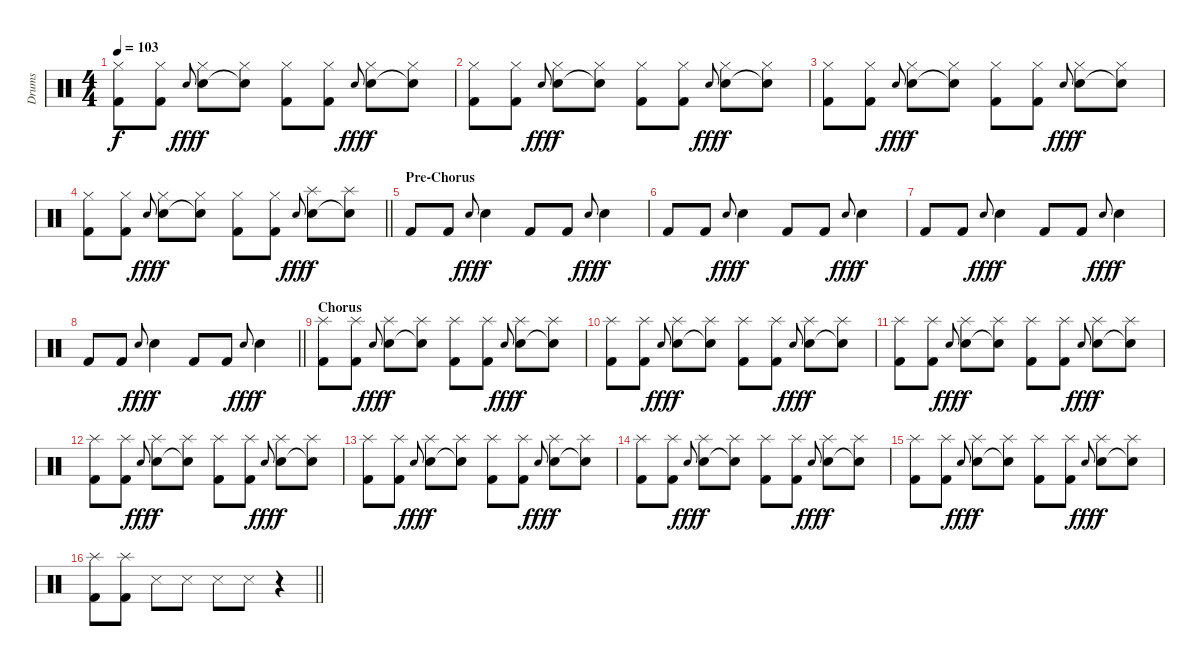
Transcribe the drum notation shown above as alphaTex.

\track ("Drums" "Drums") {instrument percussion}
\staff {score}
\articulation defaults
\ts (4 4)
\tempo 103
\clef neutral
\ks c
("Kick (hit) 2" "Hi-Hat (closed)").8{dy f} ("Kick (hit) 2" "Hi-Hat (closed)").8 "Snare (hit) 2"{h}.8{gr onbeat dy fff} ("Snare (hit) 2" "Hi-Hat (closed)").8{dy f} ("Snare (hit) 2"{t} "Hi-Hat (closed)").8 ("Kick (hit) 2" "Hi-Hat (closed)").8 ("Kick (hit) 2" "Hi-Hat (closed)").8 "Snare (hit) 2"{h}.8{gr onbeat dy fff} ("Snare (hit) 2" "Hi-Hat (closed)").8{dy f} ("Snare (hit) 2"{t} "Hi-Hat (closed)").8 |
("Kick (hit) 2" "Hi-Hat (closed)").8 ("Kick (hit) 2" "Hi-Hat (closed)").8 "Snare (hit) 2"{h}.8{gr onbeat dy fff} ("Snare (hit) 2" "Hi-Hat (closed)").8{dy f} ("Snare (hit) 2"{t} "Hi-Hat (closed)").8 ("Kick (hit) 2" "Hi-Hat (closed)").8 ("Kick (hit) 2" "Hi-Hat (closed)").8 "Snare (hit) 2"{h}.8{gr onbeat dy fff} ("Snare (hit) 2" "Hi-Hat (closed)").8{dy f} ("Snare (hit) 2"{t} "Hi-Hat (closed)").8 |
("Kick (hit) 2" "Hi-Hat (closed)").8 ("Kick (hit) 2" "Hi-Hat (closed)").8 "Snare (hit) 2"{h}.8{gr onbeat dy fff} ("Snare (hit) 2" "Hi-Hat (closed)").8{dy f} ("Snare (hit) 2"{t} "Hi-Hat (closed)").8 ("Kick (hit) 2" "Hi-Hat (closed)").8 ("Kick (hit) 2" "Hi-Hat (closed)").8 "Snare (hit) 2"{h}.8{gr onbeat dy fff} ("Snare (hit) 2" "Hi-Hat (closed)").8{dy f} ("Snare (hit) 2"{t} "Hi-Hat (closed)").8 |
\barLineRight lightlight
("Kick (hit) 2" "Hi-Hat (closed)").8 ("Kick (hit) 2" "Hi-Hat (closed)").8 "Snare (hit) 2"{h}.8{gr onbeat dy fff} ("Snare (hit) 2" "Hi-Hat (closed)").8{dy f} ("Snare (hit) 2"{t} "Hi-Hat (closed)").8 ("Kick (hit) 2" "Hi-Hat (closed)").8 ("Kick (hit) 2" "Hi-Hat (closed)").8 "Snare (hit) 2"{h}.8{gr onbeat dy fff} ("Snare (hit) 2" "Splash (hit)").8{dy f} ("Snare (hit) 2"{t} "Splash (hit)").8 |
\section ("" "Pre-Chorus")
"Kick (hit) 2".8 "Kick (hit) 2".8 "Snare (hit) 2"{h}.8{gr onbeat dy fff} "Snare (hit) 2".4{dy f} "Kick (hit) 2".8 "Kick (hit) 2".8 "Snare (hit) 2"{h}.8{gr onbeat dy fff} "Snare (hit) 2".4{dy f} |
"Kick (hit) 2".8 "Kick (hit) 2".8 "Snare (hit) 2"{h}.8{gr onbeat dy fff} "Snare (hit) 2".4{dy f} "Kick (hit) 2".8 "Kick (hit) 2".8 "Snare (hit) 2"{h}.8{gr onbeat dy fff} "Snare (hit) 2".4{dy f} |
"Kick (hit) 2".8 "Kick (hit) 2".8 "Snare (hit) 2"{h}.8{gr onbeat dy fff} "Snare (hit) 2".4{dy f} "Kick (hit) 2".8 "Kick (hit) 2".8 "Snare (hit) 2"{h}.8{gr onbeat dy fff} "Snare (hit) 2".4{dy f} |
\barLineRight lightlight "Kick (hit) 2".8 "Kick (hit) 2".8 "Snare (hit) 2"{h}.8{gr onbeat dy fff} "Snare (hit) 2".4{dy f} "Kick (hit) 2".8 "Kick (hit) 2".8 "Snare (hit) 2"{h}.8{gr onbeat dy fff} "Snare (hit) 2".4{dy f}
|
\section ("" "Chorus")
("Kick (hit) 2" "Splash (hit)").8 ("Kick (hit) 2" "Splash (hit)").8 "Snare (hit) 2"{h}.8{gr onbeat dy fff} ("Snare (hit) 2" "Splash (hit)").8{dy f} ("Snare (hit) 2"{t} "Splash (hit)").8 ("Kick (hit) 2" "Splash (hit)").8 ("Kick (hit) 2" "Splash (hit)").8 "Snare (hit) 2"{h}.8{gr onbeat dy fff} ("Snare (hit) 2" "Splash (hit)").8{dy f} ("Snare (hit) 2"{t} "Splash (hit)").8 |
("Kick (hit) 2" "Splash (hit)").8 ("Kick (hit) 2" "Splash (hit)").8 "Snare (hit) 2"{h}.8{gr onbeat dy fff} ("Snare (hit) 2" "Splash (hit)").8{dy f} ("Snare (hit) 2"{t} "Splash (hit)").8 ("Kick (hit) 2" "Splash (hit)").8 ("Kick (hit) 2" "Splash (hit)").8 "Snare (hit) 2"{h}.8{gr onbeat dy fff} ("Snare (hit) 2" "Splash (hit)").8{dy f} ("Snare (hit) 2"{t} "Splash (hit)").8 |
("Kick (hit) 2" "Splash (hit)").8 ("Kick (hit) 2" "Splash (hit)").8 "Snare (hit) 2"{h}.8{gr onbeat dy fff} ("Snare (hit) 2" "Splash (hit)").8{dy f} ("Snare (hit) 2"{t} "Splash (hit)").8 ("Kick (hit) 2" "Splash (hit)").8 ("Kick (hit) 2" "Splash (hit)").8 "Snare (hit) 2"{h}.8{gr onbeat dy fff} ("Snare (hit) 2" "Splash (hit)").8{dy f} ("Snare (hit) 2"{t} "Splash (hit)").8 |
("Kick (hit) 2" "Splash (hit)").8 ("Kick (hit) 2" "Splash (hit)").8 "Snare (hit) 2"{h}.8{gr onbeat dy fff} ("Snare (hit) 2" "Splash (hit)").8{dy f} ("Snare (hit) 2"{t} "Splash (hit)").8 ("Kick (hit) 2" "Splash (hit)").8 ("Kick (hit) 2" "Splash (hit)").8 "Snare (hit) 2"{h}.8{gr onbeat dy fff} ("Snare (hit) 2" "Splash (hit)").8{dy f} ("Snare (hit) 2"{t} "Splash (hit)").8 |
("Kick (hit) 2" "Splash (hit)").8 ("Kick (hit) 2" "Splash (hit)").8 "Snare (hit) 2"{h}.8{gr onbeat dy fff} ("Snare (hit) 2" "Splash (hit)").8{dy f} ("Snare (hit) 2"{t} "Splash (hit)").8 ("Kick (hit) 2" "Splash (hit)").8 ("Kick (hit) 2" "Splash (hit)").8 "Snare (hit) 2"{h}.8{gr onbeat dy fff} ("Snare (hit) 2" "Splash (hit)").8{dy f} ("Snare (hit) 2"{t} "Splash (hit)").8 |
("Kick (hit) 2" "Splash (hit)").8 ("Kick (hit) 2" "Splash (hit)").8 "Snare (hit) 2"{h}.8{gr onbeat dy fff} ("Snare (hit) 2" "Splash (hit)").8{dy f} ("Snare (hit) 2"{t} "Splash (hit)").8 ("Kick (hit) 2" "Splash (hit)").8 ("Kick (hit) 2" "Splash (hit)").8 "Snare (hit) 2"{h}.8{gr onbeat dy fff} ("Snare (hit) 2" "Splash (hit)").8{dy f} ("Snare (hit) 2"{t} "Splash (hit)").8 |
("Kick (hit) 2" "Splash (hit)").8 ("Kick (hit) 2" "Splash (hit)").8 "Snare (hit) 2"{h}.8{gr onbeat dy fff} ("Snare (hit) 2" "Splash (hit)").8{dy f} ("Snare (hit) 2"{t} "Splash (hit)").8 ("Kick (hit) 2" "Splash (hit)").8 ("Kick (hit) 2" "Splash (hit)").8 "Snare (hit) 2"{h}.8{gr onbeat dy fff} ("Snare (hit) 2" "Splash (hit)").8{dy f} ("Snare (hit) 2"{t} "Splash (hit)").8 |
\barLineRight lightlight
("Kick (hit) 2" "Splash (hit)").8 ("Kick (hit) 2" "Splash (hit)").8 "Metronome (hit)".8 "Metronome (hit)".8 "Metronome (hit)".8 "Metronome (hit)".8 r.4
